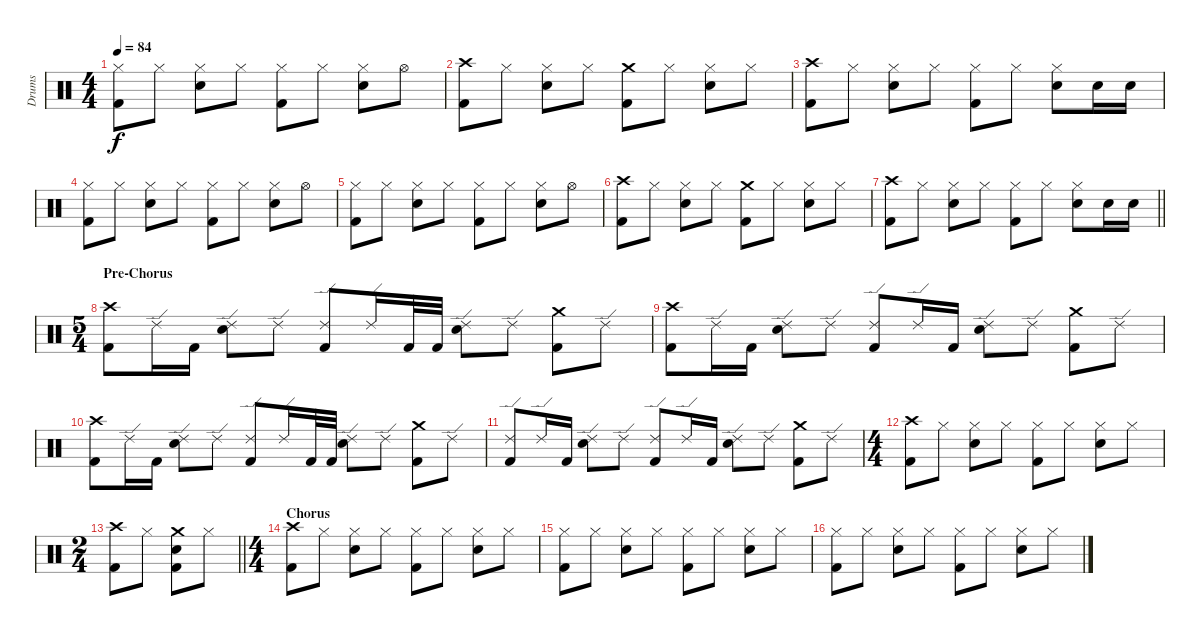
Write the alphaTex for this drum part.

\track ("Drums" "Drums") {instrument percussion}
\staff {score}
\articulation defaults
\ts (4 4)
\tempo 84
\clef neutral
\ks c
("Hi-Hat (closed)" "Kick (hit) 2").8{dy f} "Hi-Hat (closed)".8 ("Hi-Hat (closed)" "Snare (hit) 2").8 "Hi-Hat (closed)".8 ("Hi-Hat (closed)" "Kick (hit) 2").8 "Hi-Hat (closed)".8 ("Hi-Hat (closed)" "Snare (hit) 2").8 "Hi-Hat (open)".8 |
("Crash high (hit)" "Kick (hit) 2").8 "Hi-Hat (closed)".8 ("Hi-Hat (closed)" "Snare (hit) 2").8 "Hi-Hat (closed)".8 ("Crash medium (hit)" "Kick (hit) 2").8 "Hi-Hat (closed)".8 ("Hi-Hat (closed)" "Snare (hit) 2").8 "Hi-Hat (closed)".8 |
("Crash high (hit)" "Kick (hit) 2").8 "Hi-Hat (closed)".8 ("Hi-Hat (closed)" "Snare (hit) 2").8 "Hi-Hat (closed)".8 ("Hi-Hat (closed)" "Kick (hit) 2").8 "Hi-Hat (closed)".8 ("Hi-Hat (closed)" "Snare (hit) 2").8 "Snare (hit) 2".16 "Snare (hit) 2".16 |
("Hi-Hat (closed)" "Kick (hit) 2").8 "Hi-Hat (closed)".8 ("Hi-Hat (closed)" "Snare (hit) 2").8 "Hi-Hat (closed)".8 ("Hi-Hat (closed)" "Kick (hit) 2").8 "Hi-Hat (closed)".8 ("Hi-Hat (closed)" "Snare (hit) 2").8 "Hi-Hat (open)".8 |
("Hi-Hat (closed)" "Kick (hit) 2").8 "Hi-Hat (closed)".8 ("Hi-Hat (closed)" "Snare (hit) 2").8 "Hi-Hat (closed)".8 ("Hi-Hat (closed)" "Kick (hit) 2").8 "Hi-Hat (closed)".8 ("Hi-Hat (closed)" "Snare (hit) 2").8 "Hi-Hat (open)".8 |
("Crash high (hit)" "Kick (hit) 2").8 "Hi-Hat (closed)".8 ("Hi-Hat (closed)" "Snare (hit) 2").8 "Hi-Hat (closed)".8 ("Crash medium (hit)" "Kick (hit) 2").8 "Hi-Hat (closed)".8 ("Hi-Hat (closed)" "Snare (hit) 2").8 "Hi-Hat (closed)".8 |
\barLineRight lightlight
("Crash high (hit)" "Kick (hit) 2").8 "Hi-Hat (closed)".8 ("Hi-Hat (closed)" "Snare (hit) 2").8 "Hi-Hat (closed)".8 ("Hi-Hat (closed)" "Kick (hit) 2").8 "Hi-Hat (closed)".8 ("Hi-Hat (closed)" "Snare (hit) 2").8 "Snare (hit) 2".16 "Snare (hit) 2".16 |
\ts (5 4)
\section ("" "Pre-Chorus")
("Crash high (hit)" "Kick (hit) 2").8 "Ride (edge) 2".16 "Kick (hit) 2".16 ("Ride (edge) 2" "Snare (hit) 2").8 "Ride (edge) 2".8 ("Ride (edge) 2" "Kick (hit) 2").8 "Ride (edge) 2".16 "Kick (hit) 2".32 "Kick (hit) 2".32 ("Ride (edge) 2" "Snare (hit) 2").8 "Ride (edge) 2".8 ("Crash medium (hit)" "Kick (hit) 2").8 "Ride (edge) 2".8 |
("Crash high (hit)" "Kick (hit) 2").8 "Ride (edge) 2".16 "Kick (hit) 2".16 ("Ride (edge) 2" "Snare (hit) 2").8 "Ride (edge) 2".8 ("Ride (edge) 2" "Kick (hit) 2").8 "Ride (edge) 2".16 "Kick (hit) 2".16 ("Ride (edge) 2" "Snare (hit) 2").8 "Ride (edge) 2".8 ("Crash medium (hit)" "Kick (hit) 2").8 "Ride (edge) 2".8 |
("Crash high (hit)" "Kick (hit) 2").8 "Ride (edge) 2".16 "Kick (hit) 2".16 ("Ride (edge) 2" "Snare (hit) 2").8 "Ride (edge) 2".8 ("Ride (edge) 2" "Kick (hit) 2").8 "Ride (edge) 2".16 "Kick (hit) 2".32 "Kick (hit) 2".32 ("Ride (edge) 2" "Snare (hit) 2").8 "Ride (edge) 2".8 ("Crash medium (hit)" "Kick (hit) 2").8 "Ride (edge) 2".8 |
("Ride (edge) 2" "Kick (hit) 2").8 "Ride (edge) 2".16 "Kick (hit) 2".16 ("Ride (edge) 2" "Snare (hit) 2").8 "Ride (edge) 2".8 ("Ride (edge) 2" "Kick (hit) 2").8 "Ride (edge) 2".16 "Kick (hit) 2".16 ("Ride (edge) 2" "Snare (hit) 2").8 "Ride (edge) 2".8 ("Crash medium (hit)" "Kick (hit) 2").8 "Ride (edge) 2".8 |
\ts (4 4)
("Crash high (hit)" "Kick (hit) 2").8 "Hi-Hat (closed)".8 ("Hi-Hat (closed)" "Snare (hit) 2").8 "Hi-Hat (closed)".8 ("Hi-Hat (closed)" "Kick (hit) 2").8 "Hi-Hat (closed)".8 ("Hi-Hat (closed)" "Snare (hit) 2").8 "Hi-Hat (closed)".8 |
\ts (2 4)
\barLineRight lightlight
("Crash high (hit)" "Kick (hit) 2").8 "Hi-Hat (closed)".8 ("Crash medium (hit)" "Snare (hit) 2" "Kick (hit) 2").8 "Hi-Hat (closed)".8 |
\ts (4 4)
\section ("" "Chorus")
("Crash high (hit)" "Kick (hit) 2").8 "Hi-Hat (closed)".8 ("Hi-Hat (closed)" "Snare (hit) 2").8 "Hi-Hat (closed)".8 ("Hi-Hat (closed)" "Kick (hit) 2").8 "Hi-Hat (closed)".8 ("Hi-Hat (closed)" "Snare (hit) 2").8 "Hi-Hat (closed)".8 |
("Hi-Hat (closed)" "Kick (hit) 2").8 "Hi-Hat (closed)".8 ("Hi-Hat (closed)" "Snare (hit) 2").8 "Hi-Hat (closed)".8 ("Hi-Hat (closed)" "Kick (hit) 2").8 "Hi-Hat (closed)".8 ("Hi-Hat (closed)" "Snare (hit) 2").8 "Hi-Hat (closed)".8 |
("Hi-Hat (closed)" "Kick (hit) 2").8 "Hi-Hat (closed)".8 ("Hi-Hat (closed)" "Snare (hit) 2").8 "Hi-Hat (closed)".8 ("Hi-Hat (closed)" "Kick (hit) 2").8 "Hi-Hat (closed)".8 ("Hi-Hat (closed)" "Snare (hit) 2").8 "Hi-Hat (closed)".8
